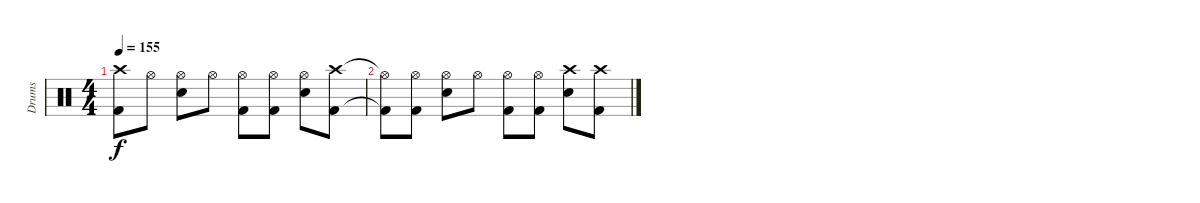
\track ("Drums" "Drums") {instrument percussion}
\staff {score}
\articulation defaults
\ts (4 4)
\tempo 155
\clef neutral
\ks c
("Crash high (hit)" "Kick (hit) 2").8{dy f} "Hi-Hat (open)".8 ("Hi-Hat (open)" "Electric Snare (hit)").8 "Hi-Hat (open)".8 ("Hi-Hat (open)" "Kick (hit) 2").8 ("Hi-Hat (open)" "Kick (hit) 2").8 ("Hi-Hat (open)" "Electric Snare (hit)").8 ("Crash high (hit)" "Kick (hit) 2").8 |
("Hi-Hat (open)"{t} "Kick (hit) 2"{t}).8 ("Hi-Hat (open)" "Kick (hit) 2").8 ("Hi-Hat (open)" "Electric Snare (hit)").8 "Hi-Hat (open)".8 ("Hi-Hat (open)" "Kick (hit) 2").8 ("Hi-Hat (open)" "Kick (hit) 2").8 ("Crash high (hit)" "Electric Snare (hit)").8 ("Crash high (hit)" "Kick (hit) 2").8
